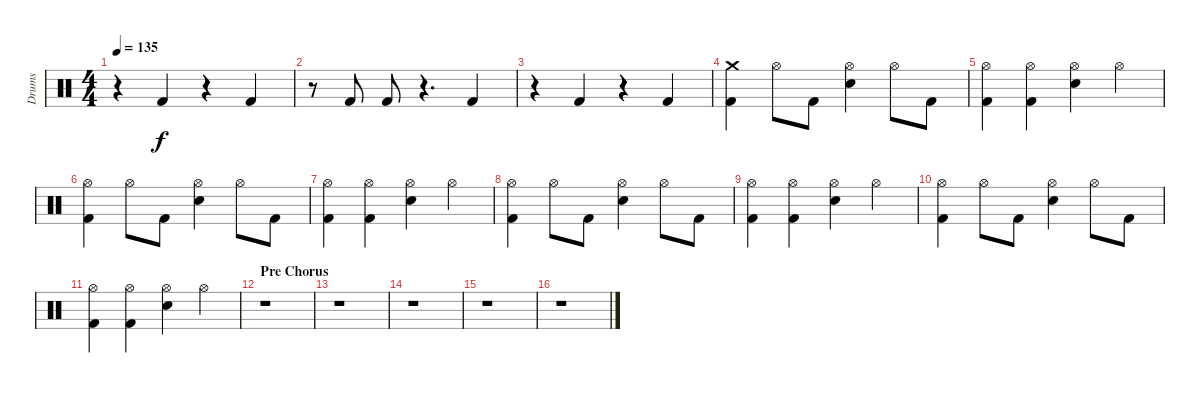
\track ("Drums" "Drums") {instrument percussion}
\staff {score}
\articulation defaults
\ts (4 4)
\tempo 135
\clef neutral
\ks c
r.4{dy f} "Kick (hit) 2".4 r.4 "Kick (hit) 2".4 |
r.8 "Kick (hit) 2".8 "Kick (hit) 2".8 r.4{d} "Kick (hit) 2".4 |
r.4 "Kick (hit) 2".4 r.4 "Kick (hit) 2".4 |
("Crash medium (hit)" "Kick (hit) 2").4 "Hi-Hat (open)".8 "Kick (hit) 2".8 ("Hi-Hat (open)" "Electric Snare (hit)").4 "Hi-Hat (open)".8 "Kick (hit) 2".8 |
("Hi-Hat (open)" "Kick (hit) 2").4 ("Hi-Hat (open)" "Kick (hit) 2").4 ("Hi-Hat (open)" "Electric Snare (hit)").4 "Hi-Hat (open)".4 |
("Hi-Hat (open)" "Kick (hit) 2").4 "Hi-Hat (open)".8 "Kick (hit) 2".8 ("Hi-Hat (open)" "Electric Snare (hit)").4 "Hi-Hat (open)".8 "Kick (hit) 2".8 |
("Hi-Hat (open)" "Kick (hit) 2").4 ("Hi-Hat (open)" "Kick (hit) 2").4 ("Hi-Hat (open)" "Electric Snare (hit)").4 "Hi-Hat (open)".4 |
("Hi-Hat (open)" "Kick (hit) 2").4 "Hi-Hat (open)".8 "Kick (hit) 2".8 ("Hi-Hat (open)" "Electric Snare (hit)").4 "Hi-Hat (open)".8 "Kick (hit) 2".8 |
("Hi-Hat (open)" "Kick (hit) 2").4 ("Hi-Hat (open)" "Kick (hit) 2").4 ("Hi-Hat (open)" "Electric Snare (hit)").4 "Hi-Hat (open)".4 |
("Hi-Hat (open)" "Kick (hit) 2").4 "Hi-Hat (open)".8 "Kick (hit) 2".8 ("Hi-Hat (open)" "Electric Snare (hit)").4 "Hi-Hat (open)".8 "Kick (hit) 2".8 |
("Hi-Hat (open)" "Kick (hit) 2").4 ("Hi-Hat (open)" "Kick (hit) 2").4 ("Hi-Hat (open)" "Electric Snare (hit)").4 "Hi-Hat (open)".4 |
\section ("" "Pre Chorus")
r.1 |
r.1 |
r.1 |
r.1 |
r.1
